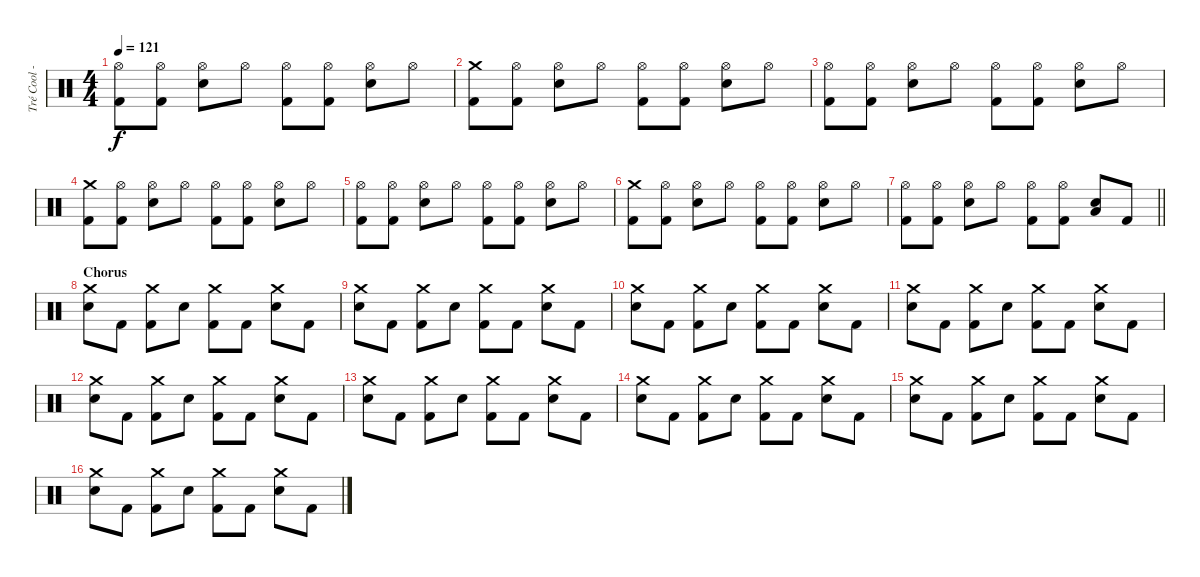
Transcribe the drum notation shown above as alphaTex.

\track ("Tré Cool - Drums" "Tré Cool -") {instrument percussion}
\staff {score}
\articulation defaults
\ts (4 4)
\tempo 121
\clef neutral
\ks c
("Hi-Hat (open)" "Kick (hit) 2").8{dy f} ("Hi-Hat (open)" "Kick (hit) 2").8 ("Hi-Hat (open)" "Electric Snare (hit)").8 "Hi-Hat (open)".8 ("Hi-Hat (open)" "Kick (hit) 2").8 ("Hi-Hat (open)" "Kick (hit) 2").8 ("Hi-Hat (open)" "Electric Snare (hit)").8 "Hi-Hat (open)".8 |
("Crash medium (hit)" "Kick (hit) 2").8 ("Hi-Hat (open)" "Kick (hit) 2").8 ("Hi-Hat (open)" "Electric Snare (hit)").8 "Hi-Hat (open)".8 ("Hi-Hat (open)" "Kick (hit) 2").8 ("Hi-Hat (open)" "Kick (hit) 2").8 ("Hi-Hat (open)" "Electric Snare (hit)").8 "Hi-Hat (open)".8 |
("Hi-Hat (open)" "Kick (hit) 2").8 ("Hi-Hat (open)" "Kick (hit) 2").8 ("Hi-Hat (open)" "Electric Snare (hit)").8 "Hi-Hat (open)".8 ("Hi-Hat (open)" "Kick (hit) 2").8 ("Hi-Hat (open)" "Kick (hit) 2").8 ("Hi-Hat (open)" "Electric Snare (hit)").8 "Hi-Hat (open)".8 |
("Crash medium (hit)" "Kick (hit) 2").8 ("Hi-Hat (open)" "Kick (hit) 2").8 ("Hi-Hat (open)" "Electric Snare (hit)").8 "Hi-Hat (open)".8 ("Hi-Hat (open)" "Kick (hit) 2").8 ("Hi-Hat (open)" "Kick (hit) 2").8 ("Hi-Hat (open)" "Electric Snare (hit)").8 "Hi-Hat (open)".8 |
("Hi-Hat (open)" "Kick (hit) 2").8 ("Hi-Hat (open)" "Kick (hit) 2").8 ("Hi-Hat (open)" "Electric Snare (hit)").8 "Hi-Hat (open)".8 ("Hi-Hat (open)" "Kick (hit) 2").8 ("Hi-Hat (open)" "Kick (hit) 2").8 ("Hi-Hat (open)" "Electric Snare (hit)").8 "Hi-Hat (open)".8 |
("Crash medium (hit)" "Kick (hit) 2").8 ("Hi-Hat (open)" "Kick (hit) 2").8 ("Hi-Hat (open)" "Electric Snare (hit)").8 "Hi-Hat (open)".8 ("Hi-Hat (open)" "Kick (hit) 2").8 ("Hi-Hat (open)" "Kick (hit) 2").8 ("Hi-Hat (open)" "Electric Snare (hit)").8 "Hi-Hat (open)".8 |
\barLineRight lightlight
("Hi-Hat (open)" "Kick (hit) 2").8 ("Hi-Hat (open)" "Kick (hit) 2").8 ("Hi-Hat (open)" "Electric Snare (hit)").8 "Hi-Hat (open)".8 ("Hi-Hat (open)" "Kick (hit) 2").8 ("Hi-Hat (open)" "Kick (hit) 2").8 ("Low Tom (hit)" "Electric Snare (hit)").8 "Kick (hit) 2".8 |
\section ("" "Chorus")
("Crash medium (hit)" "Electric Snare (hit)").8 "Kick (hit) 2".8 ("Crash medium (hit)" "Kick (hit) 2").8 "Electric Snare (hit)".8 ("Crash medium (hit)" "Kick (hit) 2").8 "Kick (hit) 2".8 ("Crash medium (hit)" "Electric Snare (hit)").8 "Kick (hit) 2".8 |
("Crash medium (hit)" "Electric Snare (hit)").8 "Kick (hit) 2".8 ("Crash medium (hit)" "Kick (hit) 2").8 "Electric Snare (hit)".8 ("Crash medium (hit)" "Kick (hit) 2").8 "Kick (hit) 2".8 ("Crash medium (hit)" "Electric Snare (hit)").8 "Kick (hit) 2".8 |
("Crash medium (hit)" "Electric Snare (hit)").8 "Kick (hit) 2".8 ("Crash medium (hit)" "Kick (hit) 2").8 "Electric Snare (hit)".8 ("Crash medium (hit)" "Kick (hit) 2").8 "Kick (hit) 2".8 ("Crash medium (hit)" "Electric Snare (hit)").8 "Kick (hit) 2".8 |
("Crash medium (hit)" "Electric Snare (hit)").8 "Kick (hit) 2".8 ("Crash medium (hit)" "Kick (hit) 2").8 "Electric Snare (hit)".8 ("Crash medium (hit)" "Kick (hit) 2").8 "Kick (hit) 2".8 ("Crash medium (hit)" "Electric Snare (hit)").8 "Kick (hit) 2".8 |
("Crash medium (hit)" "Electric Snare (hit)").8 "Kick (hit) 2".8 ("Crash medium (hit)" "Kick (hit) 2").8 "Electric Snare (hit)".8 ("Crash medium (hit)" "Kick (hit) 2").8 "Kick (hit) 2".8 ("Crash medium (hit)" "Electric Snare (hit)").8 "Kick (hit) 2".8 |
("Crash medium (hit)" "Electric Snare (hit)").8 "Kick (hit) 2".8 ("Crash medium (hit)" "Kick (hit) 2").8 "Electric Snare (hit)".8 ("Crash medium (hit)" "Kick (hit) 2").8 "Kick (hit) 2".8 ("Crash medium (hit)" "Electric Snare (hit)").8 "Kick (hit) 2".8 |
("Crash medium (hit)" "Electric Snare (hit)").8 "Kick (hit) 2".8 ("Crash medium (hit)" "Kick (hit) 2").8 "Electric Snare (hit)".8 ("Crash medium (hit)" "Kick (hit) 2").8 "Kick (hit) 2".8 ("Crash medium (hit)" "Electric Snare (hit)").8 "Kick (hit) 2".8 |
("Crash medium (hit)" "Electric Snare (hit)").8 "Kick (hit) 2".8 ("Crash medium (hit)" "Kick (hit) 2").8 "Electric Snare (hit)".8 ("Crash medium (hit)" "Kick (hit) 2").8 "Kick (hit) 2".8 ("Crash medium (hit)" "Electric Snare (hit)").8 "Kick (hit) 2".8 |
("Crash medium (hit)" "Electric Snare (hit)").8 "Kick (hit) 2".8 ("Crash medium (hit)" "Kick (hit) 2").8 "Electric Snare (hit)".8 ("Crash medium (hit)" "Kick (hit) 2").8 "Kick (hit) 2".8 ("Crash medium (hit)" "Electric Snare (hit)").8 "Kick (hit) 2".8
